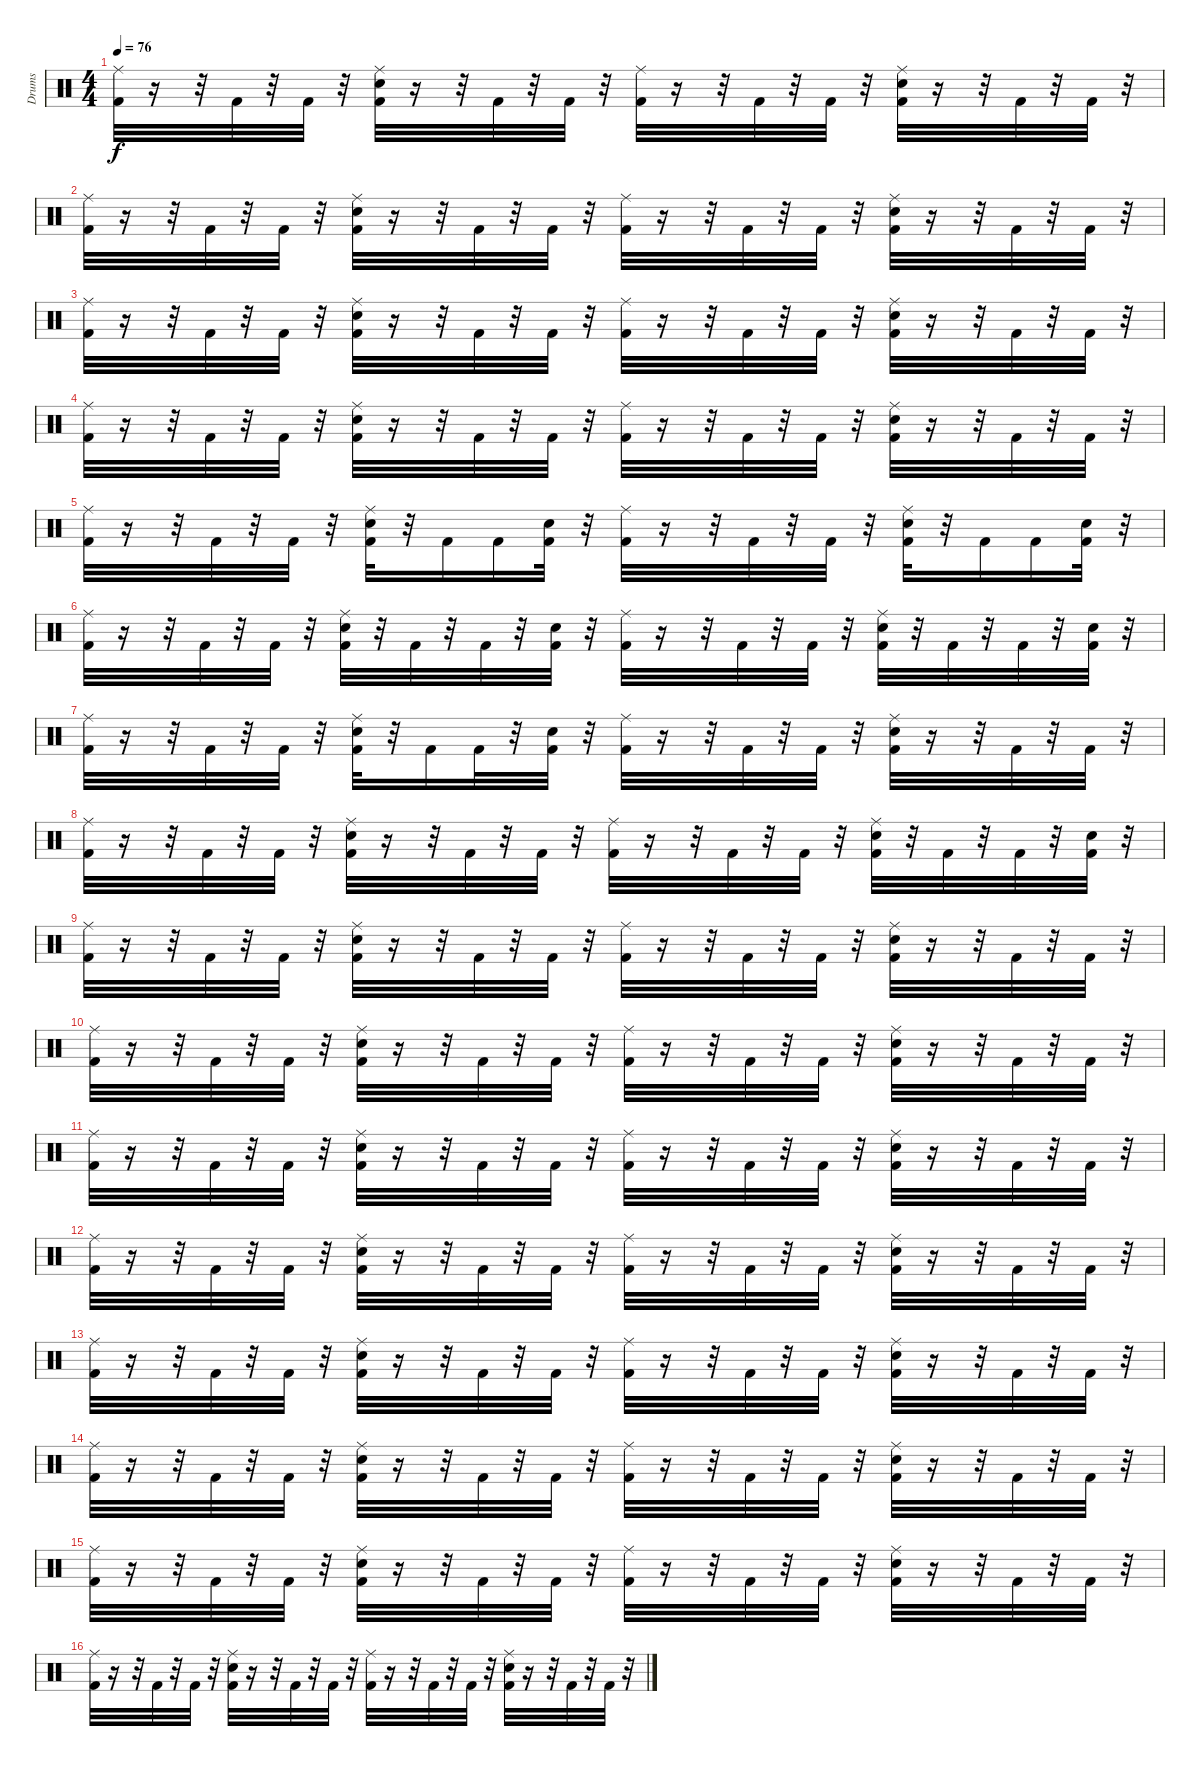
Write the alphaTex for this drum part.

\track ("Drums" "Drums") {instrument percussion}
\staff {score}
\articulation defaults
\ts (4 4)
\tempo 76
\clef neutral
\ks c
("Ride (middle)" "Kick (hit) 2").32{dy f} r.16 r.32 "Kick (hit) 2".32 r.32 "Kick (hit) 2".32 r.32 ("Ride (middle)" "Snare (hit) 2" "Kick (hit) 2").32 r.16 r.32 "Kick (hit) 2".32 r.32 "Kick (hit) 2".32 r.32 ("Ride (middle)" "Kick (hit) 2").32 r.16 r.32 "Kick (hit) 2".32 r.32 "Kick (hit) 2".32 r.32 ("Ride (middle)" "Snare (hit) 2" "Kick (hit) 2").32 r.16 r.32 "Kick (hit) 2".32 r.32 "Kick (hit) 2".32 r.32 |
("Ride (middle)" "Kick (hit) 2").32 r.16 r.32 "Kick (hit) 2".32 r.32 "Kick (hit) 2".32 r.32 ("Ride (middle)" "Snare (hit) 2" "Kick (hit) 2").32 r.16 r.32 "Kick (hit) 2".32 r.32 "Kick (hit) 2".32 r.32 ("Ride (middle)" "Kick (hit) 2").32 r.16 r.32 "Kick (hit) 2".32 r.32 "Kick (hit) 2".32 r.32 ("Ride (middle)" "Snare (hit) 2" "Kick (hit) 2").32 r.16 r.32 "Kick (hit) 2".32 r.32 "Kick (hit) 2".32 r.32 |
("Ride (middle)" "Kick (hit) 2").32 r.16 r.32 "Kick (hit) 2".32 r.32 "Kick (hit) 2".32 r.32 ("Ride (middle)" "Snare (hit) 2" "Kick (hit) 2").32 r.16 r.32 "Kick (hit) 2".32 r.32 "Kick (hit) 2".32 r.32 ("Ride (middle)" "Kick (hit) 2").32 r.16 r.32 "Kick (hit) 2".32 r.32 "Kick (hit) 2".32 r.32 ("Ride (middle)" "Snare (hit) 2" "Kick (hit) 2").32 r.16 r.32 "Kick (hit) 2".32 r.32 "Kick (hit) 2".32 r.32 |
("Ride (middle)" "Kick (hit) 2").32 r.16 r.32 "Kick (hit) 2".32 r.32 "Kick (hit) 2".32 r.32 ("Ride (middle)" "Snare (hit) 2" "Kick (hit) 2").32 r.16 r.32 "Kick (hit) 2".32 r.32 "Kick (hit) 2".32 r.32 ("Ride (middle)" "Kick (hit) 2").32 r.16 r.32 "Kick (hit) 2".32 r.32 "Kick (hit) 2".32 r.32 ("Ride (middle)" "Snare (hit) 2" "Kick (hit) 2").32 r.16 r.32 "Kick (hit) 2".32 r.32 "Kick (hit) 2".32 r.32 |
("Ride (middle)" "Kick (hit) 2").32 r.16 r.32 "Kick (hit) 2".32 r.32 "Kick (hit) 2".32 r.32 ("Ride (middle)" "Snare (hit) 2" "Kick (hit) 2").32 r.32 "Kick (hit) 2".16 "Kick (hit) 2".16 ("Snare (hit) 2" "Kick (hit) 2").32 r.32 ("Ride (middle)" "Kick (hit) 2").32 r.16 r.32 "Kick (hit) 2".32 r.32 "Kick (hit) 2".32 r.32 ("Ride (middle)" "Snare (hit) 2" "Kick (hit) 2").32 r.32 "Kick (hit) 2".16 "Kick (hit) 2".16 ("Snare (hit) 2" "Kick (hit) 2").32 r.32 |
("Ride (middle)" "Kick (hit) 2").32 r.16 r.32 "Kick (hit) 2".32 r.32 "Kick (hit) 2".32 r.32 ("Ride (middle)" "Snare (hit) 2" "Kick (hit) 2").32 r.32 "Kick (hit) 2".32 r.32 "Kick (hit) 2".32 r.32 ("Electric Snare (hit)" "Kick (hit) 2").32 r.32 ("Ride (middle)" "Kick (hit) 2").32 r.16 r.32 "Kick (hit) 2".32 r.32 "Kick (hit) 2".32 r.32 ("Ride (middle)" "Snare (hit) 2" "Kick (hit) 2").32 r.32 "Kick (hit) 2".32 r.32 "Kick (hit) 2".32 r.32 ("Electric Snare (hit)" "Kick (hit) 2").32 r.32 |
("Ride (middle)" "Kick (hit) 2").32 r.16 r.32 "Kick (hit) 2".32 r.32 "Kick (hit) 2".32 r.32 ("Ride (middle)" "Snare (hit) 2" "Kick (hit) 2").32 r.32 "Kick (hit) 2".16 "Kick (hit) 2".32 r.32 ("Snare (hit) 2" "Kick (hit) 2").32 r.32 ("Ride (middle)" "Kick (hit) 2").32 r.16 r.32 "Kick (hit) 2".32 r.32 "Kick (hit) 2".32 r.32 ("Ride (middle)" "Snare (hit) 2" "Kick (hit) 2").32 r.16 r.32 "Kick (hit) 2".32 r.32 "Kick (hit) 2".32 r.32 |
("Ride (middle)" "Kick (hit) 2").32 r.16 r.32 "Kick (hit) 2".32 r.32 "Kick (hit) 2".32 r.32 ("Ride (middle)" "Snare (hit) 2" "Kick (hit) 2").32 r.16 r.32 "Kick (hit) 2".32 r.32 "Kick (hit) 2".32 r.32 ("Ride (middle)" "Kick (hit) 2").32 r.16 r.32 "Kick (hit) 2".32 r.32 "Kick (hit) 2".32 r.32 ("Ride (middle)" "Snare (hit) 2" "Kick (hit) 2").32 r.32 "Kick (hit) 2".32 r.32 "Kick (hit) 2".32 r.32 ("Electric Snare (hit)" "Kick (hit) 2").32 r.32 |
("Ride (middle)" "Kick (hit) 2").32 r.16 r.32 "Kick (hit) 2".32 r.32 "Kick (hit) 2".32 r.32 ("Ride (middle)" "Snare (hit) 2" "Kick (hit) 2").32 r.16 r.32 "Kick (hit) 2".32 r.32 "Kick (hit) 2".32 r.32 ("Ride (middle)" "Kick (hit) 2").32 r.16 r.32 "Kick (hit) 2".32 r.32 "Kick (hit) 2".32 r.32 ("Ride (middle)" "Snare (hit) 2" "Kick (hit) 2").32 r.16 r.32 "Kick (hit) 2".32 r.32 "Kick (hit) 2".32 r.32 |
("Ride (middle)" "Kick (hit) 2").32 r.16 r.32 "Kick (hit) 2".32 r.32 "Kick (hit) 2".32 r.32 ("Ride (middle)" "Snare (hit) 2" "Kick (hit) 2").32 r.16 r.32 "Kick (hit) 2".32 r.32 "Kick (hit) 2".32 r.32 ("Ride (middle)" "Kick (hit) 2").32 r.16 r.32 "Kick (hit) 2".32 r.32 "Kick (hit) 2".32 r.32 ("Ride (middle)" "Snare (hit) 2" "Kick (hit) 2").32 r.16 r.32 "Kick (hit) 2".32 r.32 "Kick (hit) 2".32 r.32 |
("Ride (middle)" "Kick (hit) 2").32 r.16 r.32 "Kick (hit) 2".32 r.32 "Kick (hit) 2".32 r.32 ("Ride (middle)" "Snare (hit) 2" "Kick (hit) 2").32 r.16 r.32 "Kick (hit) 2".32 r.32 "Kick (hit) 2".32 r.32 ("Ride (middle)" "Kick (hit) 2").32 r.16 r.32 "Kick (hit) 2".32 r.32 "Kick (hit) 2".32 r.32 ("Ride (middle)" "Snare (hit) 2" "Kick (hit) 2").32 r.16 r.32 "Kick (hit) 2".32 r.32 "Kick (hit) 2".32 r.32 |
("Ride (middle)" "Kick (hit) 2").32 r.16 r.32 "Kick (hit) 2".32 r.32 "Kick (hit) 2".32 r.32 ("Ride (middle)" "Snare (hit) 2" "Kick (hit) 2").32 r.16 r.32 "Kick (hit) 2".32 r.32 "Kick (hit) 2".32 r.32 ("Ride (middle)" "Kick (hit) 2").32 r.16 r.32 "Kick (hit) 2".32 r.32 "Kick (hit) 2".32 r.32 ("Ride (middle)" "Snare (hit) 2" "Kick (hit) 2").32 r.16 r.32 "Kick (hit) 2".32 r.32 "Kick (hit) 2".32 r.32 |
("Ride (middle)" "Kick (hit) 2").32 r.16 r.32 "Kick (hit) 2".32 r.32 "Kick (hit) 2".32 r.32 ("Ride (middle)" "Snare (hit) 2" "Kick (hit) 2").32 r.16 r.32 "Kick (hit) 2".32 r.32 "Kick (hit) 2".32 r.32 ("Ride (middle)" "Kick (hit) 2").32 r.16 r.32 "Kick (hit) 2".32 r.32 "Kick (hit) 2".32 r.32 ("Ride (middle)" "Snare (hit) 2" "Kick (hit) 2").32 r.16 r.32 "Kick (hit) 2".32 r.32 "Kick (hit) 2".32 r.32 |
("Ride (middle)" "Kick (hit) 2").32 r.16 r.32 "Kick (hit) 2".32 r.32 "Kick (hit) 2".32 r.32 ("Ride (middle)" "Snare (hit) 2" "Kick (hit) 2").32 r.16 r.32 "Kick (hit) 2".32 r.32 "Kick (hit) 2".32 r.32 ("Ride (middle)" "Kick (hit) 2").32 r.16 r.32 "Kick (hit) 2".32 r.32 "Kick (hit) 2".32 r.32 ("Ride (middle)" "Snare (hit) 2" "Kick (hit) 2").32 r.16 r.32 "Kick (hit) 2".32 r.32 "Kick (hit) 2".32 r.32 |
("Ride (middle)" "Kick (hit) 2").32 r.16 r.32 "Kick (hit) 2".32 r.32 "Kick (hit) 2".32 r.32 ("Ride (middle)" "Snare (hit) 2" "Kick (hit) 2").32 r.16 r.32 "Kick (hit) 2".32 r.32 "Kick (hit) 2".32 r.32 ("Ride (middle)" "Kick (hit) 2").32 r.16 r.32 "Kick (hit) 2".32 r.32 "Kick (hit) 2".32 r.32 ("Ride (middle)" "Snare (hit) 2" "Kick (hit) 2").32 r.16 r.32 "Kick (hit) 2".32 r.32 "Kick (hit) 2".32 r.32 |
("Ride (middle)" "Kick (hit) 2").32 r.16 r.32 "Kick (hit) 2".32 r.32 "Kick (hit) 2".32 r.32 ("Ride (middle)" "Snare (hit) 2" "Kick (hit) 2").32 r.16 r.32 "Kick (hit) 2".32 r.32 "Kick (hit) 2".32 r.32 ("Ride (middle)" "Kick (hit) 2").32 r.16 r.32 "Kick (hit) 2".32 r.32 "Kick (hit) 2".32 r.32 ("Ride (middle)" "Snare (hit) 2" "Kick (hit) 2").32 r.16 r.32 "Kick (hit) 2".32 r.32 "Kick (hit) 2".32 r.32
